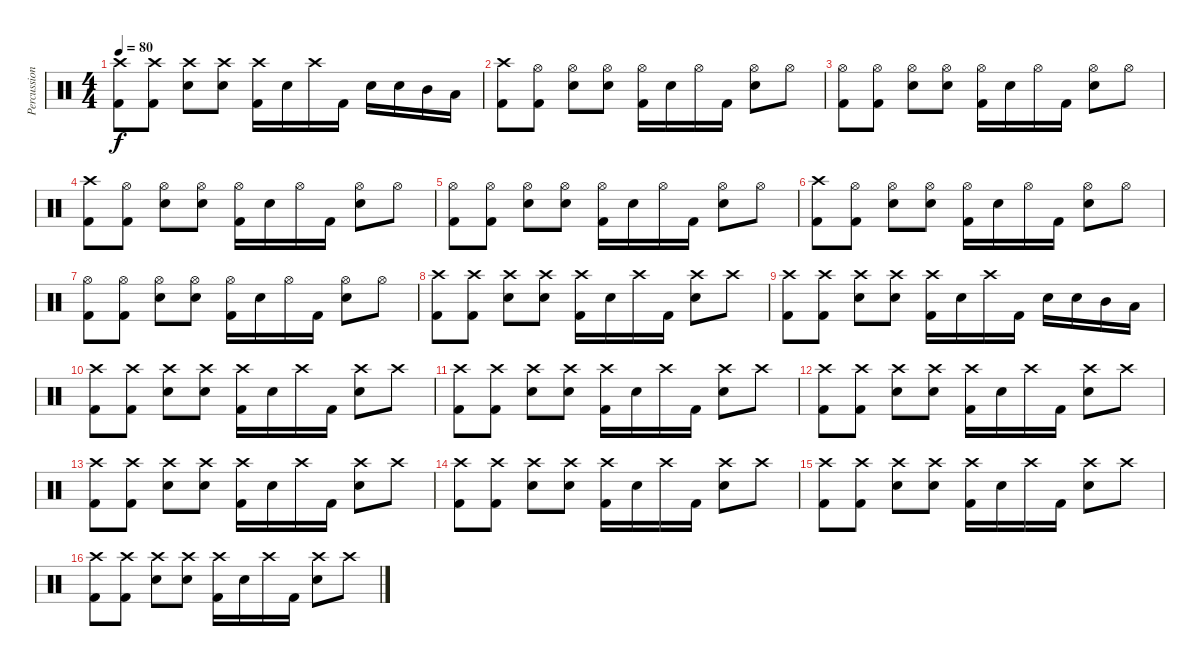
\track ("Percussion" "Percussion") {instrument percussion}
\staff {score}
\articulation defaults
\ts (4 4)
\tempo 80
\clef neutral
\ks c
("Kick (hit) 2" "Crash high (hit)").8{dy f} ("Kick (hit) 2" "Crash high (hit)").8 ("Electric Snare (hit)" "Crash high (hit)").8 ("Electric Snare (hit)" "Crash high (hit)").8 ("Kick (hit) 2" "Crash high (hit)").16 "Electric Snare (hit)".16 "Crash high (hit)".16 "Kick (hit) 2".16 "Electric Snare (hit)".16 "Electric Snare (hit)".16 "Mid Tom (hit)".16 "Low Tom (hit)".16 |
("Kick (hit) 2" "Crash high (hit)").8 ("Kick (hit) 2" "Hi-Hat (open)").8 ("Electric Snare (hit)" "Hi-Hat (open)").8 ("Electric Snare (hit)" "Hi-Hat (open)").8 ("Kick (hit) 2" "Hi-Hat (open)").16 "Electric Snare (hit)".16 "Hi-Hat (open)".16 "Kick (hit) 2".16 ("Electric Snare (hit)" "Hi-Hat (open)").8 "Hi-Hat (open)".8 |
("Kick (hit) 2" "Hi-Hat (open)").8 ("Kick (hit) 2" "Hi-Hat (open)").8 ("Electric Snare (hit)" "Hi-Hat (open)").8 ("Electric Snare (hit)" "Hi-Hat (open)").8 ("Kick (hit) 2" "Hi-Hat (open)").16 "Electric Snare (hit)".16 "Hi-Hat (open)".16 "Kick (hit) 2".16 ("Electric Snare (hit)" "Hi-Hat (open)").8 "Hi-Hat (open)".8 |
("Kick (hit) 2" "Crash high (hit)").8 ("Kick (hit) 2" "Hi-Hat (open)").8 ("Electric Snare (hit)" "Hi-Hat (open)").8 ("Electric Snare (hit)" "Hi-Hat (open)").8 ("Kick (hit) 2" "Hi-Hat (open)").16 "Electric Snare (hit)".16 "Hi-Hat (open)".16 "Kick (hit) 2".16 ("Electric Snare (hit)" "Hi-Hat (open)").8 "Hi-Hat (open)".8 |
("Kick (hit) 2" "Hi-Hat (open)").8 ("Kick (hit) 2" "Hi-Hat (open)").8 ("Electric Snare (hit)" "Hi-Hat (open)").8 ("Electric Snare (hit)" "Hi-Hat (open)").8 ("Kick (hit) 2" "Hi-Hat (open)").16 "Electric Snare (hit)".16 "Hi-Hat (open)".16 "Kick (hit) 2".16 ("Electric Snare (hit)" "Hi-Hat (open)").8 "Hi-Hat (open)".8 |
("Kick (hit) 2" "Crash high (hit)").8 ("Kick (hit) 2" "Hi-Hat (open)").8 ("Electric Snare (hit)" "Hi-Hat (open)").8 ("Electric Snare (hit)" "Hi-Hat (open)").8 ("Kick (hit) 2" "Hi-Hat (open)").16 "Electric Snare (hit)".16 "Hi-Hat (open)".16 "Kick (hit) 2".16 ("Electric Snare (hit)" "Hi-Hat (open)").8 "Hi-Hat (open)".8 |
("Kick (hit) 2" "Hi-Hat (open)").8 ("Kick (hit) 2" "Hi-Hat (open)").8 ("Electric Snare (hit)" "Hi-Hat (open)").8 ("Electric Snare (hit)" "Hi-Hat (open)").8 ("Kick (hit) 2" "Hi-Hat (open)").16 "Electric Snare (hit)".16 "Hi-Hat (open)".16 "Kick (hit) 2".16 ("Electric Snare (hit)" "Hi-Hat (open)").8 "Hi-Hat (open)".8 |
("Kick (hit) 2" "Crash high (hit)").8 ("Kick (hit) 2" "Crash high (hit)").8 ("Electric Snare (hit)" "Crash high (hit)").8 ("Electric Snare (hit)" "Crash high (hit)").8 ("Kick (hit) 2" "Crash high (hit)").16 "Electric Snare (hit)".16 "Crash high (hit)".16 "Kick (hit) 2".16 ("Electric Snare (hit)" "Crash high (hit)").8 "Crash high (hit)".8 |
("Kick (hit) 2" "Crash high (hit)").8 ("Kick (hit) 2" "Crash high (hit)").8 ("Electric Snare (hit)" "Crash high (hit)").8 ("Electric Snare (hit)" "Crash high (hit)").8 ("Kick (hit) 2" "Crash high (hit)").16 "Electric Snare (hit)".16 "Crash high (hit)".16 "Kick (hit) 2".16 "Electric Snare (hit)".16 "Electric Snare (hit)".16 "Mid Tom (hit)".16 "Low Tom (hit)".16 |
("Kick (hit) 2" "Crash high (hit)").8 ("Kick (hit) 2" "Crash high (hit)").8 ("Electric Snare (hit)" "Crash high (hit)").8 ("Electric Snare (hit)" "Crash high (hit)").8 ("Kick (hit) 2" "Crash high (hit)").16 "Electric Snare (hit)".16 "Crash high (hit)".16 "Kick (hit) 2".16 ("Electric Snare (hit)" "Crash high (hit)").8 "Crash high (hit)".8 |
("Kick (hit) 2" "Crash high (hit)").8 ("Kick (hit) 2" "Crash high (hit)").8 ("Electric Snare (hit)" "Crash high (hit)").8 ("Electric Snare (hit)" "Crash high (hit)").8 ("Kick (hit) 2" "Crash high (hit)").16 "Electric Snare (hit)".16 "Crash high (hit)".16 "Kick (hit) 2".16 ("Electric Snare (hit)" "Crash high (hit)").8 "Crash high (hit)".8 |
("Kick (hit) 2" "Crash high (hit)").8 ("Kick (hit) 2" "Crash high (hit)").8 ("Electric Snare (hit)" "Crash high (hit)").8 ("Electric Snare (hit)" "Crash high (hit)").8 ("Kick (hit) 2" "Crash high (hit)").16 "Electric Snare (hit)".16 "Crash high (hit)".16 "Kick (hit) 2".16 ("Electric Snare (hit)" "Crash high (hit)").8 "Crash high (hit)".8 |
("Kick (hit) 2" "Crash high (hit)").8 ("Kick (hit) 2" "Crash high (hit)").8 ("Electric Snare (hit)" "Crash high (hit)").8 ("Electric Snare (hit)" "Crash high (hit)").8 ("Kick (hit) 2" "Crash high (hit)").16 "Electric Snare (hit)".16 "Crash high (hit)".16 "Kick (hit) 2".16 ("Electric Snare (hit)" "Crash high (hit)").8 "Crash high (hit)".8 |
("Kick (hit) 2" "Crash high (hit)").8 ("Kick (hit) 2" "Crash high (hit)").8 ("Electric Snare (hit)" "Crash high (hit)").8 ("Electric Snare (hit)" "Crash high (hit)").8 ("Kick (hit) 2" "Crash high (hit)").16 "Electric Snare (hit)".16 "Crash high (hit)".16 "Kick (hit) 2".16 ("Electric Snare (hit)" "Crash high (hit)").8 "Crash high (hit)".8 |
("Kick (hit) 2" "Crash high (hit)").8 ("Kick (hit) 2" "Crash high (hit)").8 ("Electric Snare (hit)" "Crash high (hit)").8 ("Electric Snare (hit)" "Crash high (hit)").8 ("Kick (hit) 2" "Crash high (hit)").16 "Electric Snare (hit)".16 "Crash high (hit)".16 "Kick (hit) 2".16 ("Electric Snare (hit)" "Crash high (hit)").8 "Crash high (hit)".8 |
("Kick (hit) 2" "Crash high (hit)").8 ("Kick (hit) 2" "Crash high (hit)").8 ("Electric Snare (hit)" "Crash high (hit)").8 ("Electric Snare (hit)" "Crash high (hit)").8 ("Kick (hit) 2" "Crash high (hit)").16 "Electric Snare (hit)".16 "Crash high (hit)".16 "Kick (hit) 2".16 ("Electric Snare (hit)" "Crash high (hit)").8 "Crash high (hit)".8
